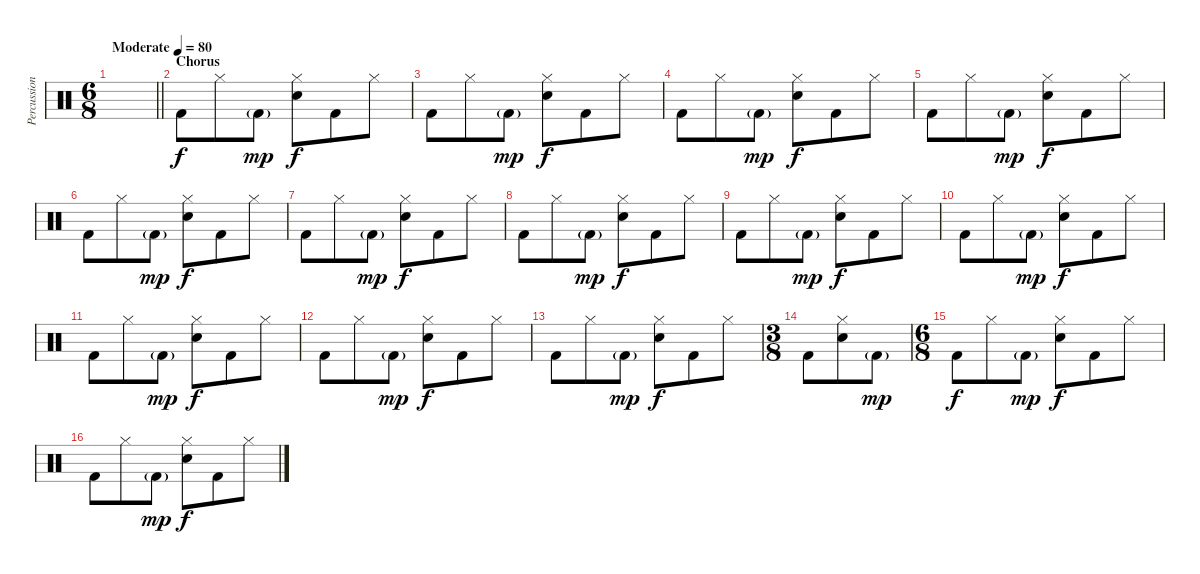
\track ("Percussion" "Percussion") {instrument percussion}
\staff {score}
\articulation defaults
\ts (6 8)
\tempo (80 "Moderate")
\clef neutral
\barLineRight lightlight
\ks c
|
\section ("" "Chorus")
"Kick (hit) 2".8 "Hi-Hat (closed)".8 "Kick (hit) 2"{g}.8{dy mp} ("Hi-Hat (closed)" "Snare (hit) 2").8{dy f} "Kick (hit) 2".8 "Hi-Hat (closed)".8 |
"Kick (hit) 2".8 "Hi-Hat (closed)".8 "Kick (hit) 2"{g}.8{dy mp} ("Hi-Hat (closed)" "Snare (hit) 2").8{dy f} "Kick (hit) 2".8 "Hi-Hat (closed)".8 |
"Kick (hit) 2".8 "Hi-Hat (closed)".8 "Kick (hit) 2"{g}.8{dy mp} ("Hi-Hat (closed)" "Snare (hit) 2").8{dy f} "Kick (hit) 2".8 "Hi-Hat (closed)".8 |
"Kick (hit) 2".8 "Hi-Hat (closed)".8 "Kick (hit) 2"{g}.8{dy mp} ("Hi-Hat (closed)" "Snare (hit) 2").8{dy f} "Kick (hit) 2".8 "Hi-Hat (closed)".8 |
"Kick (hit) 2".8 "Hi-Hat (closed)".8 "Kick (hit) 2"{g}.8{dy mp} ("Hi-Hat (closed)" "Snare (hit) 2").8{dy f} "Kick (hit) 2".8 "Hi-Hat (closed)".8 |
"Kick (hit) 2".8 "Hi-Hat (closed)".8 "Kick (hit) 2"{g}.8{dy mp} ("Hi-Hat (closed)" "Snare (hit) 2").8{dy f} "Kick (hit) 2".8 "Hi-Hat (closed)".8 |
"Kick (hit) 2".8 "Hi-Hat (closed)".8 "Kick (hit) 2"{g}.8{dy mp} ("Hi-Hat (closed)" "Snare (hit) 2").8{dy f} "Kick (hit) 2".8 "Hi-Hat (closed)".8 |
"Kick (hit) 2".8 "Hi-Hat (closed)".8 "Kick (hit) 2"{g}.8{dy mp} ("Hi-Hat (closed)" "Snare (hit) 2").8{dy f} "Kick (hit) 2".8 "Hi-Hat (closed)".8 |
"Kick (hit) 2".8 "Hi-Hat (closed)".8 "Kick (hit) 2"{g}.8{dy mp} ("Hi-Hat (closed)" "Snare (hit) 2").8{dy f} "Kick (hit) 2".8 "Hi-Hat (closed)".8 |
"Kick (hit) 2".8 "Hi-Hat (closed)".8 "Kick (hit) 2"{g}.8{dy mp} ("Hi-Hat (closed)" "Snare (hit) 2").8{dy f} "Kick (hit) 2".8 "Hi-Hat (closed)".8 |
"Kick (hit) 2".8 "Hi-Hat (closed)".8 "Kick (hit) 2"{g}.8{dy mp} ("Hi-Hat (closed)" "Snare (hit) 2").8{dy f} "Kick (hit) 2".8 "Hi-Hat (closed)".8 |
"Kick (hit) 2".8 "Hi-Hat (closed)".8 "Kick (hit) 2"{g}.8{dy mp} ("Hi-Hat (closed)" "Snare (hit) 2").8{dy f} "Kick (hit) 2".8 "Hi-Hat (closed)".8 |
\ts (3 8)
"Kick (hit) 2".8 ("Hi-Hat (closed)" "Snare (hit) 2").8 "Kick (hit) 2"{g}.8{dy mp} |
\ts (6 8)
"Kick (hit) 2".8{dy f} "Hi-Hat (closed)".8 "Kick (hit) 2"{g}.8{dy mp} ("Hi-Hat (closed)" "Snare (hit) 2").8{dy f} "Kick (hit) 2".8 "Hi-Hat (closed)".8 |
"Kick (hit) 2".8 "Hi-Hat (closed)".8 "Kick (hit) 2"{g}.8{dy mp} ("Hi-Hat (closed)" "Snare (hit) 2").8{dy f} "Kick (hit) 2".8 "Hi-Hat (closed)".8
